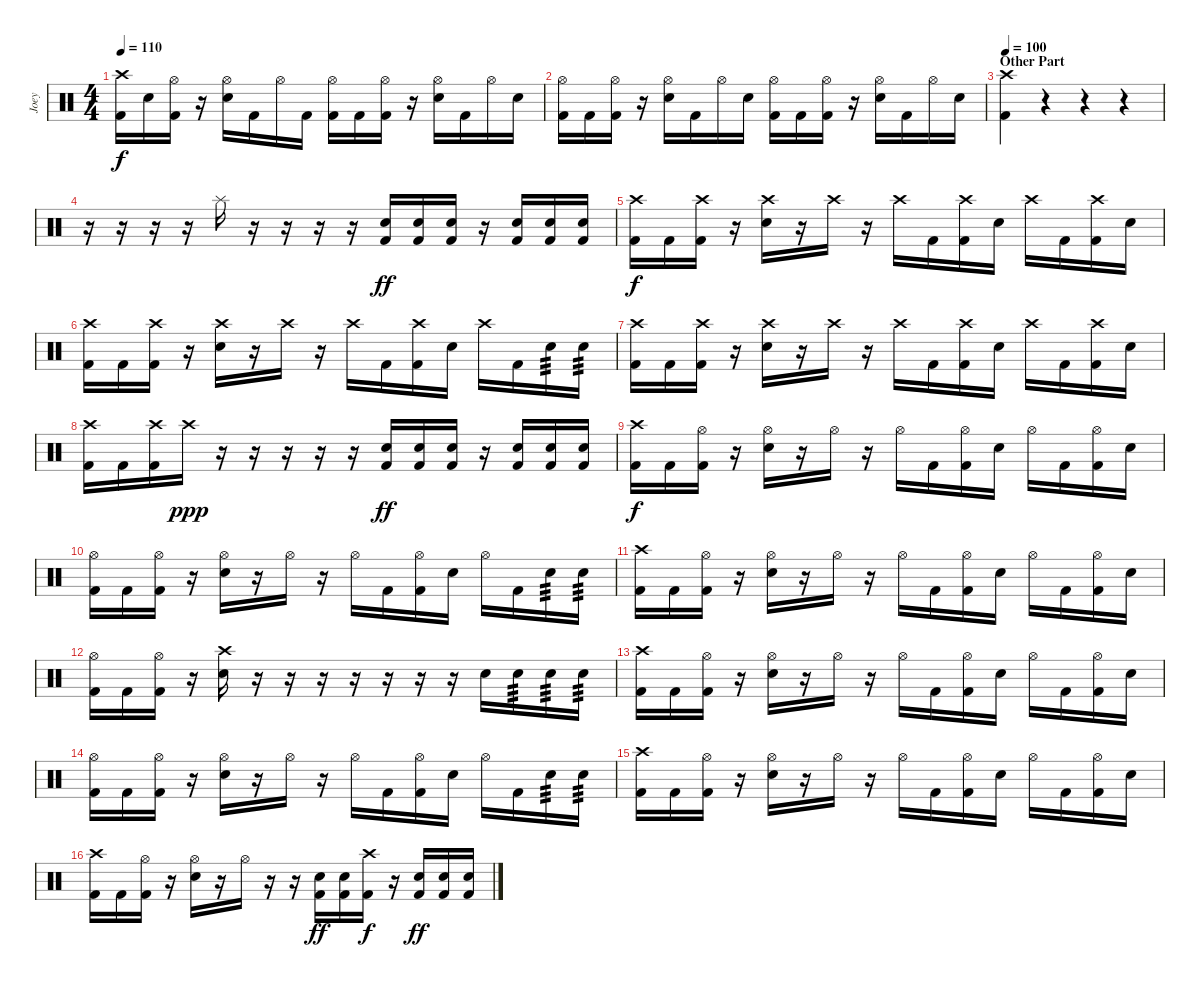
\track ("Joey" "Joey") {instrument percussion}
\staff {score}
\articulation defaults
\ts (4 4)
\tempo 110
\clef neutral
\ks c
("Crash high (hit)" "Kick (hit) 2").16{dy f} "Electric Snare (hit)".16 ("Hi-Hat (open)" "Kick (hit) 2").16 r.16 ("Hi-Hat (open)" "Electric Snare (hit)").16 "Kick (hit) 2".16 "Hi-Hat (open)".16 "Kick (hit) 2".16 ("Hi-Hat (open)" "Kick (hit) 2").16 "Kick (hit) 2".16 ("Hi-Hat (open)" "Kick (hit) 2").16 r.16 ("Hi-Hat (open)" "Electric Snare (hit)").16 "Kick (hit) 2".16 "Hi-Hat (open)".16 "Electric Snare (hit)".16 |
("Hi-Hat (open)" "Kick (hit) 2").16 "Kick (hit) 2".16 ("Hi-Hat (open)" "Kick (hit) 2").16 r.16 ("Hi-Hat (open)" "Electric Snare (hit)").16 "Kick (hit) 2".16 "Hi-Hat (open)".16 "Electric Snare (hit)".16 ("Hi-Hat (open)" "Kick (hit) 2").16 "Kick (hit) 2".16 ("Hi-Hat (open)" "Kick (hit) 2").16 r.16 ("Hi-Hat (open)" "Electric Snare (hit)").16 "Kick (hit) 2".16 "Hi-Hat (open)".16 "Electric Snare (hit)".16 |
\section ("" "Other Part")
\tempo 100
("Crash high (hit)" "Kick (hit) 2").4 r.4 r.4 r.4 |
r.16 r.16 r.16 r.16 "Splash (hit)".16 r.16 r.16 r.16 r.16 ("Electric Snare (hit)" "Kick (hit) 2").16{dy ff} ("Electric Snare (hit)" "Kick (hit) 2").16 ("Electric Snare (hit)" "Kick (hit) 2").16 r.16 ("Electric Snare (hit)" "Kick (hit) 2").16 ("Electric Snare (hit)" "Kick (hit) 2").16 ("Electric Snare (hit)" "Kick (hit) 2").16 |
("Crash high (hit)" "Kick (hit) 2").16{dy f} "Kick (hit) 2".16 ("Crash high (hit)" "Kick (hit) 2").16 r.16 ("Crash high (hit)" "Electric Snare (hit)").16 r.16 "Crash high (hit)".16 r.16 "Crash high (hit)".16 "Kick (hit) 2".16 ("Crash high (hit)" "Kick (hit) 2").16 "Electric Snare (hit)".16 "Crash high (hit)".16 "Kick (hit) 2".16 ("Crash high (hit)" "Kick (hit) 2").16 "Electric Snare (hit)".16 |
("Crash high (hit)" "Kick (hit) 2").16 "Kick (hit) 2".16 ("Crash high (hit)" "Kick (hit) 2").16 r.16 ("Crash high (hit)" "Electric Snare (hit)").16 r.16 "Crash high (hit)".16 r.16 "Crash high (hit)".16 "Kick (hit) 2".16 ("Crash high (hit)" "Kick (hit) 2").16 "Electric Snare (hit)".16 "Crash high (hit)".16 "Kick (hit) 2".16 "Electric Snare (hit)".16{tp 3} "Electric Snare (hit)".16{tp 3} |
("Crash high (hit)" "Kick (hit) 2").16 "Kick (hit) 2".16 ("Crash high (hit)" "Kick (hit) 2").16 r.16 ("Crash high (hit)" "Electric Snare (hit)").16 r.16 "Crash high (hit)".16 r.16 "Crash high (hit)".16 "Kick (hit) 2".16 ("Crash high (hit)" "Kick (hit) 2").16 "Electric Snare (hit)".16 "Crash high (hit)".16 "Kick (hit) 2".16 ("Crash high (hit)" "Kick (hit) 2").16 "Electric Snare (hit)".16 |
("Crash high (hit)" "Kick (hit) 2").16 "Kick (hit) 2".16 ("Crash high (hit)" "Kick (hit) 2").16 "Crash high (hit)".16{dy ppp} r.16 r.16 r.16 r.16 r.16 ("Kick (hit) 2" "Electric Snare (hit)").16{dy ff} ("Kick (hit) 2" "Electric Snare (hit)").16 ("Kick (hit) 2" "Electric Snare (hit)").16 r.16 ("Kick (hit) 2" "Electric Snare (hit)").16 ("Kick (hit) 2" "Electric Snare (hit)").16 ("Kick (hit) 2" "Electric Snare (hit)").16 |
("Crash high (hit)" "Kick (hit) 2").16{dy f} "Kick (hit) 2".16 ("Hi-Hat (open)" "Kick (hit) 2").16 r.16 ("Hi-Hat (open)" "Electric Snare (hit)").16 r.16 "Hi-Hat (open)".16 r.16 "Hi-Hat (open)".16 "Kick (hit) 2".16 ("Hi-Hat (open)" "Kick (hit) 2").16 "Electric Snare (hit)".16 "Hi-Hat (open)".16 "Kick (hit) 2".16 ("Hi-Hat (open)" "Kick (hit) 2").16 "Electric Snare (hit)".16 |
("Hi-Hat (open)" "Kick (hit) 2").16 "Kick (hit) 2".16 ("Hi-Hat (open)" "Kick (hit) 2").16 r.16 ("Hi-Hat (open)" "Electric Snare (hit)").16 r.16 "Hi-Hat (open)".16 r.16 "Hi-Hat (open)".16 "Kick (hit) 2".16 ("Hi-Hat (open)" "Kick (hit) 2").16 "Electric Snare (hit)".16 "Hi-Hat (open)".16 "Kick (hit) 2".16 "Electric Snare (hit)".16{tp 3} "Electric Snare (hit)".16{tp 3} |
("Crash high (hit)" "Kick (hit) 2").16 "Kick (hit) 2".16 ("Hi-Hat (open)" "Kick (hit) 2").16 r.16 ("Hi-Hat (open)" "Electric Snare (hit)").16 r.16 "Hi-Hat (open)".16 r.16 "Hi-Hat (open)".16 "Kick (hit) 2".16 ("Hi-Hat (open)" "Kick (hit) 2").16 "Electric Snare (hit)".16 "Hi-Hat (open)".16 "Kick (hit) 2".16 ("Hi-Hat (open)" "Kick (hit) 2").16 "Electric Snare (hit)".16 |
("Hi-Hat (open)" "Kick (hit) 2").16 "Kick (hit) 2".16 ("Hi-Hat (open)" "Kick (hit) 2").16 r.16 ("Crash high (hit)" "Electric Snare (hit)").16 r.16 r.16 r.16 r.16 r.16 r.16 r.16 "Electric Snare (hit)".16 "Electric Snare (hit)".16{tp 3} "Electric Snare (hit)".16{tp 3} "Electric Snare (hit)".16{tp 3} |
("Crash high (hit)" "Kick (hit) 2").16 "Kick (hit) 2".16 ("Hi-Hat (open)" "Kick (hit) 2").16 r.16 ("Hi-Hat (open)" "Electric Snare (hit)").16 r.16 "Hi-Hat (open)".16 r.16 "Hi-Hat (open)".16 "Kick (hit) 2".16 ("Hi-Hat (open)" "Kick (hit) 2").16 "Electric Snare (hit)".16 "Hi-Hat (open)".16 "Kick (hit) 2".16 ("Hi-Hat (open)" "Kick (hit) 2").16 "Electric Snare (hit)".16 |
("Hi-Hat (open)" "Kick (hit) 2").16 "Kick (hit) 2".16 ("Hi-Hat (open)" "Kick (hit) 2").16 r.16 ("Hi-Hat (open)" "Electric Snare (hit)").16 r.16 "Hi-Hat (open)".16 r.16 "Hi-Hat (open)".16 "Kick (hit) 2".16 ("Hi-Hat (open)" "Kick (hit) 2").16 "Electric Snare (hit)".16 "Hi-Hat (open)".16 "Kick (hit) 2".16 "Electric Snare (hit)".16{tp 3} "Electric Snare (hit)".16{tp 3} |
("Crash high (hit)" "Kick (hit) 2").16 "Kick (hit) 2".16 ("Hi-Hat (open)" "Kick (hit) 2").16 r.16 ("Hi-Hat (open)" "Electric Snare (hit)").16 r.16 "Hi-Hat (open)".16 r.16 "Hi-Hat (open)".16 "Kick (hit) 2".16 ("Hi-Hat (open)" "Kick (hit) 2").16 "Electric Snare (hit)".16 "Hi-Hat (open)".16 "Kick (hit) 2".16 ("Hi-Hat (open)" "Kick (hit) 2").16 "Electric Snare (hit)".16 |
("Crash high (hit)" "Kick (hit) 2").16 "Kick (hit) 2".16 ("Hi-Hat (open)" "Kick (hit) 2").16 r.16 ("Hi-Hat (open)" "Electric Snare (hit)").16 r.16 "Hi-Hat (open)".16 r.16 r.16 ("Kick (hit) 2" "Electric Snare (hit)").16{dy ff} ("Kick (hit) 2" "Electric Snare (hit)").16 ("Crash high (hit)" "Kick (hit) 2").16{dy f} r.16 ("Kick (hit) 2" "Electric Snare (hit)").16{dy ff} ("Kick (hit) 2" "Electric Snare (hit)").16 ("Kick (hit) 2" "Electric Snare (hit)").16
